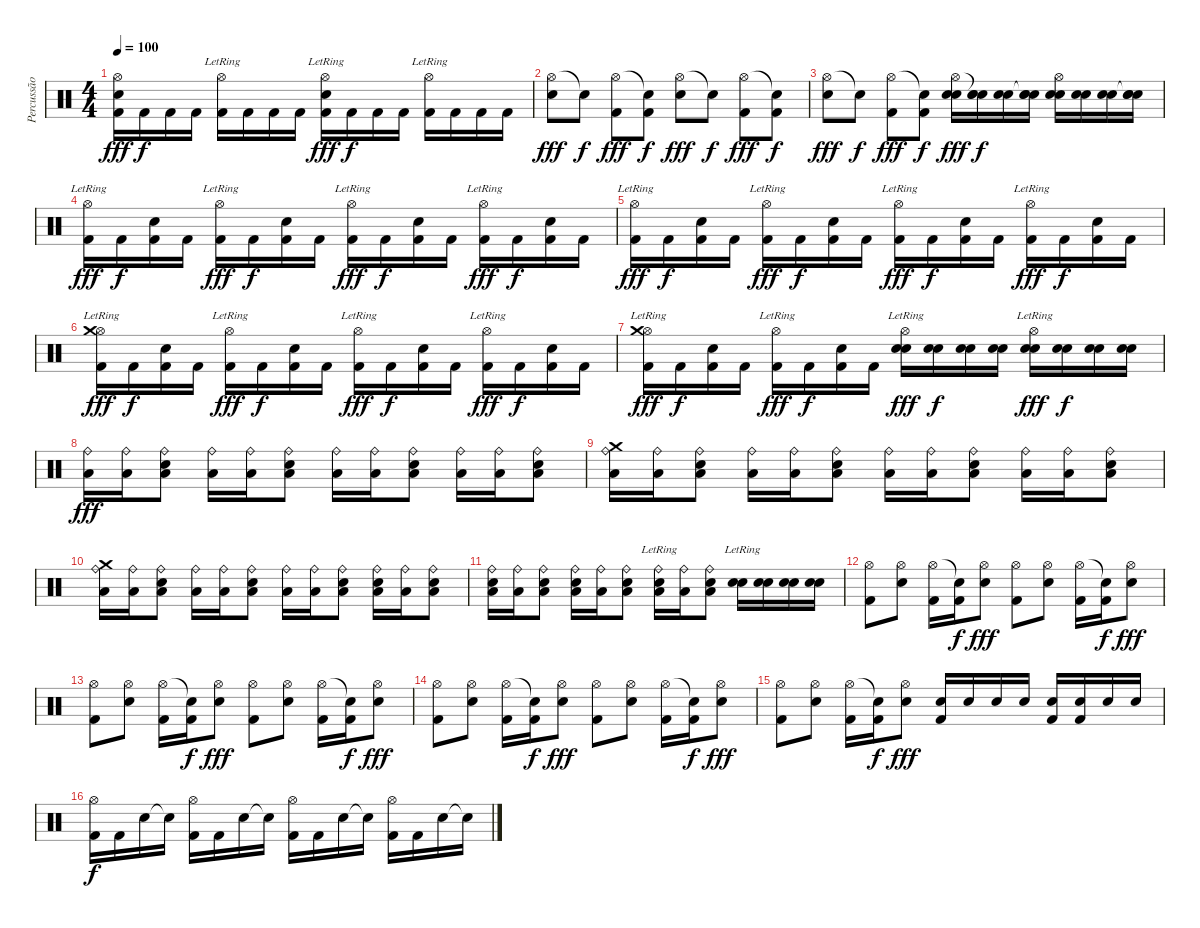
\track ("Percussão" "Percussão") {instrument percussion}
\staff {score}
\articulation defaults
\ts (4 4)
\tempo 100
\clef neutral
\ks c
("Hi-Hat (open)" "Electric Snare (hit)" "Kick (hit) 2").16{dy fff} "Kick (hit) 2".16{dy f} "Kick (hit) 2".16 "Kick (hit) 2".16 ("Hi-Hat (open)"{lr} "Kick (hit) 2").16 "Kick (hit) 2".16 "Kick (hit) 2".16 "Kick (hit) 2".16 ("Hi-Hat (open)"{lr} "Electric Snare (hit)" "Kick (hit) 2").16{dy fff} "Kick (hit) 2".16{dy f} "Kick (hit) 2".16 "Kick (hit) 2".16 ("Hi-Hat (open)"{lr} "Kick (hit) 2").16 "Kick (hit) 2".16 "Kick (hit) 2".16 "Kick (hit) 2".16 |
("Hi-Hat (open)" "Electric Snare (hit)").8{dy fff} "Snare (hit)"{t}.8{dy f} ("Hi-Hat (open)" "Kick (hit) 2").8{dy fff} ("Snare (hit)"{t} "Kick (hit) 2").8{dy f} ("Hi-Hat (open)" "Electric Snare (hit)").8{dy fff} "Snare (hit)"{t}.8{dy f} ("Hi-Hat (open)" "Kick (hit) 2").8{dy fff} ("Snare (hit)"{t} "Kick (hit) 2").8{dy f} |
("Hi-Hat (open)" "Electric Snare (hit)").8{dy fff} "Snare (hit)"{t}.8{dy f} ("Hi-Hat (open)" "Kick (hit) 2").8{dy fff} ("Snare (hit)"{t} "Kick (hit) 2").8{dy f} ("Hi-Hat (open)" "Electric Snare (hit)" "Electric Snare (hit)").16{dy fff} ("Snare (hit)"{t} "Electric Snare (hit)" "Electric Snare (hit)").16{dy f} ("Electric Snare (hit)" "Electric Snare (hit)").16 ("Snare (hit)"{t} "Electric Snare (hit)" "Electric Snare (hit)").16 ("Hi-Hat (open)" "Electric Snare (hit)" "Electric Snare (hit)").16 ("Electric Snare (hit)" "Electric Snare (hit)").16 ("Electric Snare (hit)" "Electric Snare (hit)").16 ("Snare (hit)"{t} "Electric Snare (hit)" "Electric Snare (hit)").16 |
("Hi-Hat (open)"{lr} "Kick (hit) 2").16{dy fff} "Kick (hit) 2".16{dy f} ("Electric Snare (hit)" "Kick (hit) 2").16 "Kick (hit) 2".16 ("Hi-Hat (open)"{lr} "Kick (hit) 2").16{dy fff} "Kick (hit) 2".16{dy f} ("Electric Snare (hit)" "Kick (hit) 2").16 "Kick (hit) 2".16 ("Hi-Hat (open)"{lr} "Kick (hit) 2").16{dy fff} "Kick (hit) 2".16{dy f} ("Electric Snare (hit)" "Kick (hit) 2").16 "Kick (hit) 2".16 ("Hi-Hat (open)"{lr} "Kick (hit) 2").16{dy fff} "Kick (hit) 2".16{dy f} ("Electric Snare (hit)" "Kick (hit) 2").16 "Kick (hit) 2".16 |
("Hi-Hat (open)"{lr} "Kick (hit) 2").16{dy fff} "Kick (hit) 2".16{dy f} ("Electric Snare (hit)" "Kick (hit) 2").16 "Kick (hit) 2".16 ("Hi-Hat (open)"{lr} "Kick (hit) 2").16{dy fff} "Kick (hit) 2".16{dy f} ("Electric Snare (hit)" "Kick (hit) 2").16 "Kick (hit) 2".16 ("Hi-Hat (open)"{lr} "Kick (hit) 2").16{dy fff} "Kick (hit) 2".16{dy f} ("Electric Snare (hit)" "Kick (hit) 2").16 "Kick (hit) 2".16 ("Hi-Hat (open)"{lr} "Kick (hit) 2").16{dy fff} "Kick (hit) 2".16{dy f} ("Electric Snare (hit)" "Kick (hit) 2").16 "Kick (hit) 2".16 |
("Hi-Hat (open)"{lr} "Crash medium (hit)" "Kick (hit) 2").16{dy fff} "Kick (hit) 2".16{dy f} ("Electric Snare (hit)" "Kick (hit) 2").16 "Kick (hit) 2".16 ("Hi-Hat (open)"{lr} "Kick (hit) 2").16{dy fff} "Kick (hit) 2".16{dy f} ("Electric Snare (hit)" "Kick (hit) 2").16 "Kick (hit) 2".16 ("Hi-Hat (open)"{lr} "Kick (hit) 2").16{dy fff} "Kick (hit) 2".16{dy f} ("Electric Snare (hit)" "Kick (hit) 2").16 "Kick (hit) 2".16 ("Hi-Hat (open)"{lr} "Kick (hit) 2").16{dy fff} "Kick (hit) 2".16{dy f} ("Electric Snare (hit)" "Kick (hit) 2").16 "Kick (hit) 2".16 |
("Hi-Hat (open)"{lr} "Crash medium (hit)" "Kick (hit) 2").16{dy fff} "Kick (hit) 2".16{dy f} ("Electric Snare (hit)" "Kick (hit) 2").16 "Kick (hit) 2".16 ("Hi-Hat (open)"{lr} "Kick (hit) 2").16{dy fff} "Kick (hit) 2".16{dy f} ("Electric Snare (hit)" "Kick (hit) 2").16 "Kick (hit) 2".16 ("Hi-Hat (open)"{lr} "Electric Snare (hit)" "Electric Snare (hit)").16{dy fff} ("Electric Snare (hit)" "Electric Snare (hit)").16{dy f} ("Electric Snare (hit)" "Electric Snare (hit)").16 ("Electric Snare (hit)" "Electric Snare (hit)").16 ("Hi-Hat (open)"{lr} "Electric Snare (hit)" "Electric Snare (hit)").16{dy fff} ("Electric Snare (hit)" "Electric Snare (hit)").16{dy f} ("Electric Snare (hit)" "Electric Snare (hit)").16 ("Electric Snare (hit)" "Electric Snare (hit)").16 |
("Ride (bell)" "Low Floor Tom (hit)").16{dy fff} ("Ride (bell)" "Low Floor Tom (hit)").16 ("Electric Snare (hit)" "Ride (bell)" "Low Floor Tom (hit)").8 ("Ride (bell)" "Low Floor Tom (hit)").16 ("Ride (bell)" "Low Floor Tom (hit)").16 ("Electric Snare (hit)" "Ride (bell)" "Low Floor Tom (hit)").8 ("Ride (bell)" "Low Floor Tom (hit)").16 ("Ride (bell)" "Low Floor Tom (hit)").16 ("Electric Snare (hit)" "Ride (bell)" "Low Floor Tom (hit)").8 ("Ride (bell)" "Low Floor Tom (hit)").16 ("Ride (bell)" "Low Floor Tom (hit)").16 ("Electric Snare (hit)" "Ride (bell)" "Low Floor Tom (hit)").8 |
("Crash medium (hit)" "Ride (bell)" "Low Floor Tom (hit)").16 ("Ride (bell)" "Low Floor Tom (hit)").16 ("Electric Snare (hit)" "Ride (bell)" "Low Floor Tom (hit)").8 ("Ride (bell)" "Low Floor Tom (hit)").16 ("Ride (bell)" "Low Floor Tom (hit)").16 ("Electric Snare (hit)" "Ride (bell)" "Low Floor Tom (hit)").8 ("Ride (bell)" "Low Floor Tom (hit)").16 ("Ride (bell)" "Low Floor Tom (hit)").16 ("Electric Snare (hit)" "Ride (bell)" "Low Floor Tom (hit)").8 ("Ride (bell)" "Low Floor Tom (hit)").16 ("Ride (bell)" "Low Floor Tom (hit)").16 ("Electric Snare (hit)" "Ride (bell)" "Low Floor Tom (hit)").8 |
("Crash medium (hit)" "Ride (bell)" "Low Floor Tom (hit)").16 ("Ride (bell)" "Low Floor Tom (hit)").16 ("Electric Snare (hit)" "Ride (bell)" "Low Floor Tom (hit)").8 ("Ride (bell)" "Low Floor Tom (hit)").16 ("Ride (bell)" "Low Floor Tom (hit)").16 ("Electric Snare (hit)" "Ride (bell)" "Low Floor Tom (hit)").8 ("Ride (bell)" "Low Floor Tom (hit)").16 ("Ride (bell)" "Low Floor Tom (hit)").16 ("Electric Snare (hit)" "Ride (bell)" "Low Floor Tom (hit)").8 ("Electric Snare (hit)" "Ride (bell)" "Low Floor Tom (hit)").16 ("Ride (bell)" "Low Floor Tom (hit)").16 ("Electric Snare (hit)" "Ride (bell)" "Low Floor Tom (hit)").8 |
("Electric Snare (hit)" "Ride (bell)" "Low Floor Tom (hit)").16 ("Ride (bell)" "Low Floor Tom (hit)").16 ("Electric Snare (hit)" "Ride (bell)" "Low Floor Tom (hit)").8 ("Electric Snare (hit)" "Ride (bell)" "Low Floor Tom (hit)").16 ("Ride (bell)" "Low Floor Tom (hit)").16 ("Electric Snare (hit)" "Ride (bell)" "Low Floor Tom (hit)").8 ("Electric Snare (hit)"{lr} "Ride (bell)" "Low Floor Tom (hit)").16 ("Ride (bell)" "Low Floor Tom (hit)").16 ("Electric Snare (hit)" "Ride (bell)" "Low Floor Tom (hit)").8 ("Electric Snare (hit)"{lr} "Electric Snare (hit)").16 ("Electric Snare (hit)" "Electric Snare (hit)").16 ("Electric Snare (hit)" "Electric Snare (hit)").16 ("Electric Snare (hit)" "Electric Snare (hit)").16 |
("Hi-Hat (open)" "Kick (hit) 2").8 ("Hi-Hat (open)" "Electric Snare (hit)").8 ("Hi-Hat (open)" "Kick (hit) 2").16 ("Snare (hit)"{t} "Kick (hit) 2").16{dy f} ("Hi-Hat (open)" "Electric Snare (hit)").8{dy fff} ("Hi-Hat (open)" "Kick (hit) 2").8 ("Hi-Hat (open)" "Electric Snare (hit)").8 ("Hi-Hat (open)" "Kick (hit) 2").16 ("Snare (hit)"{t} "Kick (hit) 2").16{dy f} ("Hi-Hat (open)" "Electric Snare (hit)").8{dy fff} |
("Hi-Hat (open)" "Kick (hit) 2").8 ("Hi-Hat (open)" "Electric Snare (hit)").8 ("Hi-Hat (open)" "Kick (hit) 2").16 ("Snare (hit)"{t} "Kick (hit) 2").16{dy f} ("Hi-Hat (open)" "Electric Snare (hit)").8{dy fff} ("Hi-Hat (open)" "Kick (hit) 2").8 ("Hi-Hat (open)" "Electric Snare (hit)").8 ("Hi-Hat (open)" "Kick (hit) 2").16 ("Snare (hit)"{t} "Kick (hit) 2").16{dy f} ("Hi-Hat (open)" "Electric Snare (hit)").8{dy fff} |
("Hi-Hat (open)" "Kick (hit) 2").8 ("Hi-Hat (open)" "Electric Snare (hit)").8 ("Hi-Hat (open)" "Kick (hit) 2").16 ("Snare (hit)"{t} "Kick (hit) 2").16{dy f} ("Hi-Hat (open)" "Electric Snare (hit)").8{dy fff} ("Hi-Hat (open)" "Kick (hit) 2").8 ("Hi-Hat (open)" "Electric Snare (hit)").8 ("Hi-Hat (open)" "Kick (hit) 2").16 ("Snare (hit)"{t} "Kick (hit) 2").16{dy f} ("Hi-Hat (open)" "Electric Snare (hit)").8{dy fff} |
("Hi-Hat (open)" "Kick (hit) 2").8 ("Hi-Hat (open)" "Electric Snare (hit)").8 ("Hi-Hat (open)" "Kick (hit) 2").16 ("Snare (hit)"{t} "Kick (hit) 2").16{dy f} ("Hi-Hat (open)" "Electric Snare (hit)").8{dy fff} ("Electric Snare (hit)" "Kick (hit) 2").16 "Electric Snare (hit)".16 "Electric Snare (hit)".16 "Electric Snare (hit)".16 ("Electric Snare (hit)" "Kick (hit) 2").16 ("Electric Snare (hit)" "Kick (hit) 2").16 "Electric Snare (hit)".16 "Electric Snare (hit)".16 |
("Kick (hit) 2" "Hi-Hat (open)").16{dy f} "Kick (hit) 2".16 "Electric Snare (hit)".16 "Snare (hit)"{t}.16 ("Kick (hit) 2" "Hi-Hat (open)").16 "Kick (hit) 2".16 "Electric Snare (hit)".16 "Snare (hit)"{t}.16 ("Kick (hit) 2" "Hi-Hat (open)").16 "Kick (hit) 2".16 "Electric Snare (hit)".16 "Snare (hit)"{t}.16 ("Kick (hit) 2" "Hi-Hat (open)").16 "Kick (hit) 2".16 "Electric Snare (hit)".16 "Snare (hit)"{t}.16
